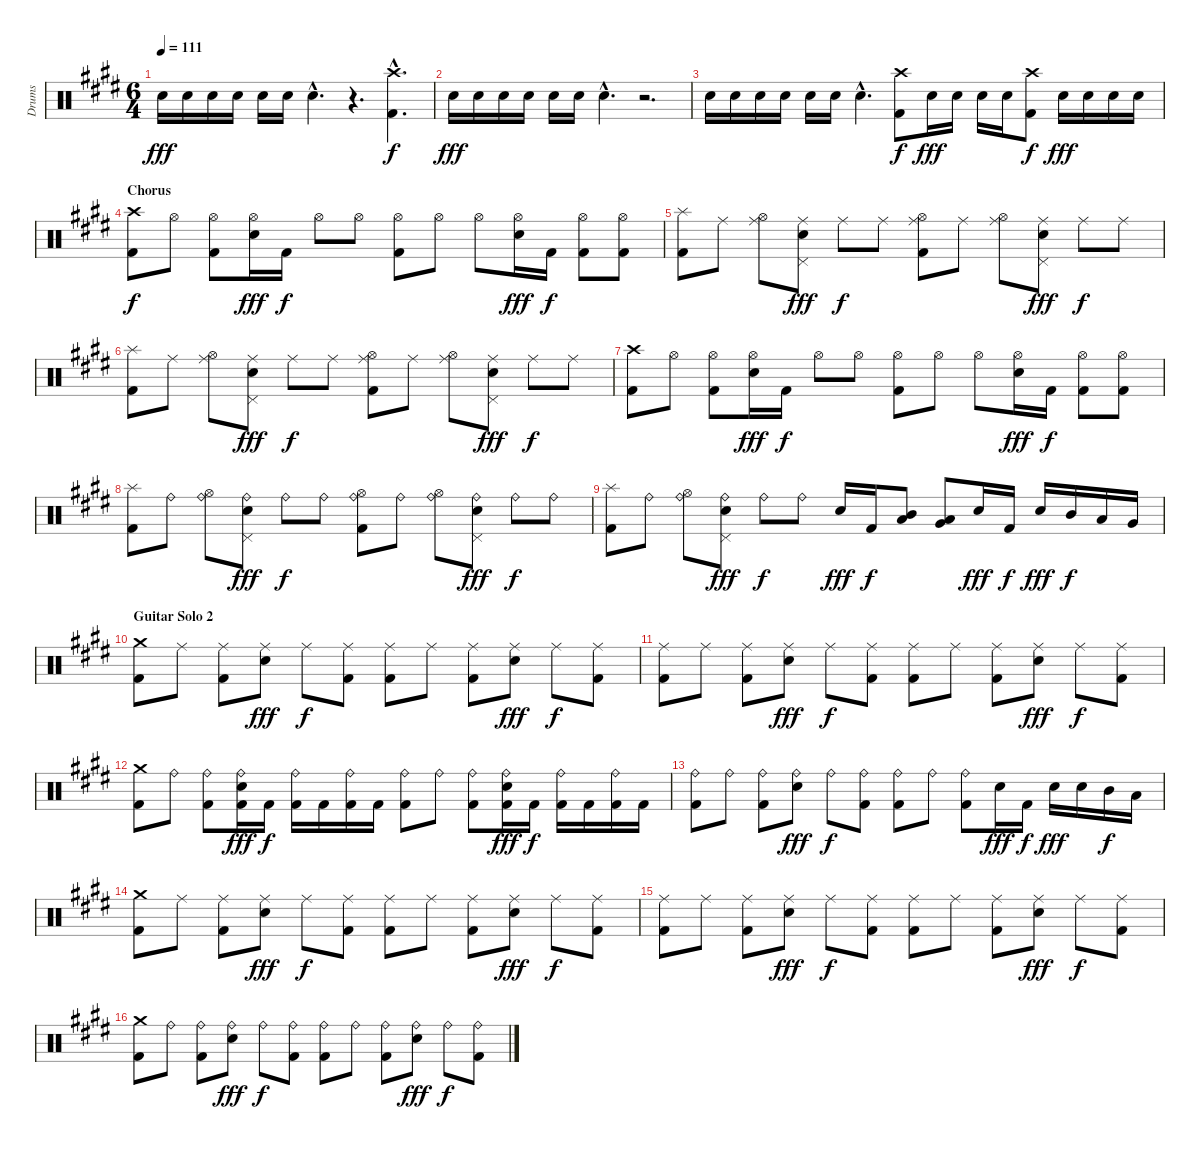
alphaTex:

\track ("Drums" "Drums") {instrument percussion}
\staff {score}
\articulation defaults
\ts (6 4)
\tempo 111
\clef neutral
\ks c#minor "Snare (hit) 2".16{dy fff} "Snare (hit) 2".16 "Snare (hit) 2".16 "Snare (hit) 2".16 "Snare (hit) 2".16 "Snare (hit) 2".16 "Snare (hit) 2"{hac}.4{d}
r.4{d} ("Crash high (hit)"{hac} "Kick (hit) 2"{hac}).4{d dy f} |
"Snare (hit) 2".16{dy fff} "Snare (hit) 2".16 "Snare (hit) 2".16 "Snare (hit) 2".16 "Snare (hit) 2".16 "Snare (hit) 2".16 "Snare (hit) 2"{hac}.4{d} r.2{d} |
"Snare (hit) 2".16 "Snare (hit) 2".16 "Snare (hit) 2".16 "Snare (hit) 2".16 "Snare (hit) 2".16 "Snare (hit) 2".16 "Snare (hit) 2"{hac}.4{d} ("Crash high (hit)" "Kick (hit) 2").8{dy f} "Snare (hit) 2".16{dy fff} "Snare (hit) 2".16 "Snare (hit) 2".16 "Snare (hit) 2".16 ("Crash high (hit)" "Kick (hit) 2").8{dy f} "Snare (hit) 2".16{dy fff} "Snare (hit) 2".16 "Snare (hit) 2".16 "Snare (hit) 2".16 |
\section ("" "Chorus")
("Crash high (hit)" "Kick (hit) 2").8{dy f} "Hi-Hat (open)".8 ("Hi-Hat (open)" "Kick (hit) 2").8 ("Hi-Hat (open)" "Snare (hit) 2").16{dy fff} "Kick (hit) 2".16{dy f} "Hi-Hat (open)".8 "Hi-Hat (open)".8 ("Hi-Hat (open)" "Kick (hit) 2").8 "Hi-Hat (open)".8 "Hi-Hat (open)".8 ("Hi-Hat (open)" "Snare (hit) 2").16{dy fff} "Kick (hit) 2".16{dy f} ("Hi-Hat (open)" "Kick (hit) 2").8 ("Hi-Hat (open)" "Kick (hit) 2").8 |
("Splash (hit)" "Kick (hit) 2").8 "Ride (middle)".8 ("Hi-Hat (open)" "Ride (middle)").8 ("Pedal Hi-Hat (hit)" "Ride (middle)" "Snare (hit) 2").8{dy fff} "Ride (middle)".8{dy f} "Ride (middle)".8 ("Hi-Hat (open)" "Ride (middle)" "Kick (hit) 2").8 "Ride (middle)".8 ("Hi-Hat (open)" "Ride (middle)").8 ("Pedal Hi-Hat (hit)" "Ride (middle)" "Snare (hit) 2").8{dy fff} "Ride (middle)".8{dy f} "Ride (middle)".8 |
("Splash (hit)" "Kick (hit) 2").8 "Ride (middle)".8 ("Hi-Hat (open)" "Ride (middle)").8 ("Pedal Hi-Hat (hit)" "Ride (middle)" "Snare (hit) 2").8{dy fff} "Ride (middle)".8{dy f} "Ride (middle)".8 ("Hi-Hat (open)" "Ride (middle)" "Kick (hit) 2").8 "Ride (middle)".8 ("Hi-Hat (open)" "Ride (middle)").8 ("Pedal Hi-Hat (hit)" "Ride (middle)" "Snare (hit) 2").8{dy fff} "Ride (middle)".8{dy f} "Ride (middle)".8 |
("Crash high (hit)" "Kick (hit) 2").8 "Hi-Hat (open)".8 ("Hi-Hat (open)" "Kick (hit) 2").8 ("Hi-Hat (open)" "Snare (hit) 2").16{dy fff} "Kick (hit) 2".16{dy f} "Hi-Hat (open)".8 "Hi-Hat (open)".8 ("Hi-Hat (open)" "Kick (hit) 2").8 "Hi-Hat (open)".8 "Hi-Hat (open)".8 ("Hi-Hat (open)" "Snare (hit) 2").16{dy fff} "Kick (hit) 2".16{dy f} ("Hi-Hat (open)" "Kick (hit) 2").8 ("Hi-Hat (open)" "Kick (hit) 2").8 |
("Splash (hit)" "Kick (hit) 2").8 "Ride (bell)".8 ("Hi-Hat (open)" "Ride (bell)").8 ("Pedal Hi-Hat (hit)" "Ride (bell)" "Snare (hit) 2").8{dy fff} "Ride (bell)".8{dy f} "Ride (bell)".8 ("Hi-Hat (open)" "Ride (bell)" "Kick (hit) 2").8 "Ride (bell)".8 ("Hi-Hat (open)" "Ride (bell)").8 ("Pedal Hi-Hat (hit)" "Ride (bell)" "Snare (hit) 2").8{dy fff} "Ride (bell)".8{dy f} "Ride (bell)".8 |
("Splash (hit)" "Kick (hit) 2").8 "Ride (bell)".8 ("Hi-Hat (open)" "Ride (bell)").8 ("Pedal Hi-Hat (hit)" "Ride (bell)" "Snare (hit) 2").8{dy fff} "Ride (bell)".8{dy f} "Ride (bell)".8 "Snare (hit) 2".16{dy fff} "Kick (hit) 2".16{dy f} ("Mid Tom (hit)" "Low Tom (hit)").8 ("Low Tom (hit)" "Very Low Tom (hit)").8 "Snare (hit) 2".16{dy fff} "Kick (hit) 2".16{dy f} "Snare (hit) 2".16{dy fff} "Mid Tom (hit)".16{dy f} "Low Tom (hit)".16 "Very Low Tom (hit)".16 |
\section ("" "Guitar Solo 2")
("Crash medium (hit)" "Kick (hit) 2").8 "Ride (middle)".8 ("Ride (middle)" "Kick (hit) 2").8 ("Ride (middle)" "Snare (hit) 2").8{dy fff} "Ride (middle)".8{dy f} ("Ride (middle)" "Kick (hit) 2").8 ("Ride (middle)" "Kick (hit) 2").8 "Ride (middle)".8 ("Ride (middle)" "Kick (hit) 2").8 ("Ride (middle)" "Snare (hit) 2").8{dy fff} "Ride (middle)".8{dy f} ("Ride (middle)" "Kick (hit) 2").8 |
("Ride (middle)" "Kick (hit) 2").8 "Ride (middle)".8 ("Ride (middle)" "Kick (hit) 2").8 ("Ride (middle)" "Snare (hit) 2").8{dy fff} "Ride (middle)".8{dy f} ("Ride (middle)" "Kick (hit) 2").8 ("Ride (middle)" "Kick (hit) 2").8 "Ride (middle)".8 ("Ride (middle)" "Kick (hit) 2").8 ("Ride (middle)" "Snare (hit) 2").8{dy fff} "Ride (middle)".8{dy f} ("Ride (middle)" "Kick (hit) 2").8 |
("Crash medium (hit)" "Kick (hit) 2").8 "Ride (bell)".8 ("Ride (bell)" "Kick (hit) 2").8 ("Ride (bell)" "Snare (hit) 2" "Kick (hit) 2").16{dy fff} "Kick (hit) 2".16{dy f} ("Ride (bell)" "Kick (hit) 2").16 "Kick (hit) 2".16 ("Ride (bell)" "Kick (hit) 2").16 "Kick (hit) 2".16 ("Ride (bell)" "Kick (hit) 2").8 "Ride (bell)".8 ("Ride (bell)" "Kick (hit) 2").8 ("Ride (bell)" "Snare (hit) 2" "Kick (hit) 2").16{dy fff} "Kick (hit) 2".16{dy f} ("Ride (bell)" "Kick (hit) 2").16 "Kick (hit) 2".16 ("Ride (bell)" "Kick (hit) 2").16 "Kick (hit) 2".16 |
("Ride (bell)" "Kick (hit) 2").8 "Ride (bell)".8 ("Ride (bell)" "Kick (hit) 2").8 ("Ride (bell)" "Snare (hit) 2").8{dy fff} "Ride (bell)".8{dy f} ("Ride (bell)" "Kick (hit) 2").8 ("Ride (bell)" "Kick (hit) 2").8 "Ride (bell)".8 ("Ride (bell)" "Kick (hit) 2").8 "Snare (hit) 2".16{dy fff} "Kick (hit) 2".16{dy f} "Snare (hit) 2".16{dy fff} "Snare (hit) 2".16 "Mid Tom (hit)".16{dy f} "Low Tom (hit)".16 |
("Crash medium (hit)" "Kick (hit) 2").8 "Ride (middle)".8 ("Ride (middle)" "Kick (hit) 2").8 ("Ride (middle)" "Snare (hit) 2").8{dy fff} "Ride (middle)".8{dy f} ("Ride (middle)" "Kick (hit) 2").8 ("Ride (middle)" "Kick (hit) 2").8 "Ride (middle)".8 ("Ride (middle)" "Kick (hit) 2").8 ("Ride (middle)" "Snare (hit) 2").8{dy fff} "Ride (middle)".8{dy f} ("Ride (middle)" "Kick (hit) 2").8 |
("Ride (middle)" "Kick (hit) 2").8 "Ride (middle)".8 ("Ride (middle)" "Kick (hit) 2").8 ("Ride (middle)" "Snare (hit) 2").8{dy fff} "Ride (middle)".8{dy f} ("Ride (middle)" "Kick (hit) 2").8 ("Ride (middle)" "Kick (hit) 2").8 "Ride (middle)".8 ("Ride (middle)" "Kick (hit) 2").8 ("Ride (middle)" "Snare (hit) 2").8{dy fff} "Ride (middle)".8{dy f} ("Ride (middle)" "Kick (hit) 2").8 |
("Crash medium (hit)" "Kick (hit) 2").8 "Ride (bell)".8 ("Ride (bell)" "Kick (hit) 2").8 ("Ride (bell)" "Snare (hit) 2").8{dy fff} "Ride (bell)".8{dy f} ("Ride (bell)" "Kick (hit) 2").8 ("Ride (bell)" "Kick (hit) 2").8 "Ride (bell)".8 ("Ride (bell)" "Kick (hit) 2").8 ("Ride (bell)" "Snare (hit) 2").8{dy fff} "Ride (bell)".8{dy f} ("Ride (bell)" "Kick (hit) 2").8
